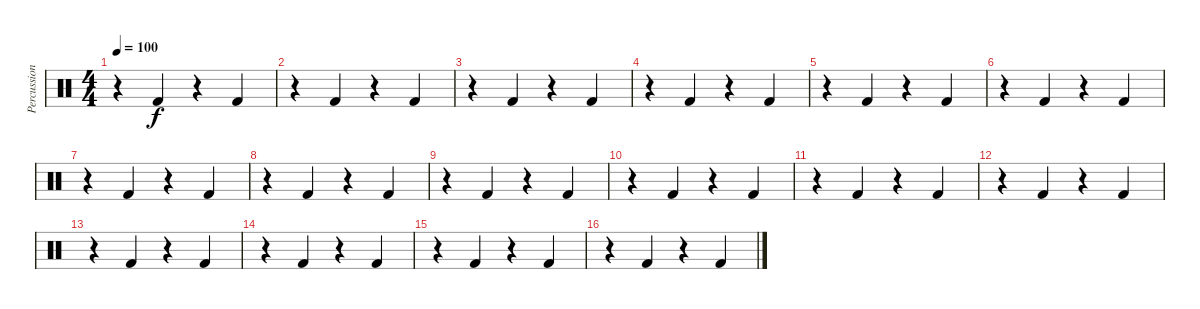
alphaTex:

\track ("Percussion" "Percussion") {instrument percussion}
\staff {score}
\articulation defaults
\ts (4 4)
\tempo 100
\clef neutral
\ks c
r.4{dy f} "Kick (hit) 2".4 r.4 "Kick (hit) 2".4 |
r.4 "Kick (hit) 2".4 r.4 "Kick (hit) 2".4 |
r.4 "Kick (hit) 2".4 r.4 "Kick (hit) 2".4 |
r.4 "Kick (hit) 2".4 r.4 "Kick (hit) 2".4 |
r.4 "Kick (hit) 2".4 r.4 "Kick (hit) 2".4 |
r.4 "Kick (hit) 2".4 r.4 "Kick (hit) 2".4 |
r.4 "Kick (hit) 2".4 r.4 "Kick (hit) 2".4 |
r.4 "Kick (hit) 2".4 r.4 "Kick (hit) 2".4 |
r.4 "Kick (hit) 2".4 r.4 "Kick (hit) 2".4 |
r.4 "Kick (hit) 2".4 r.4 "Kick (hit) 2".4 |
r.4 "Kick (hit) 2".4 r.4 "Kick (hit) 2".4 |
r.4 "Kick (hit) 2".4 r.4 "Kick (hit) 2".4 |
r.4 "Kick (hit) 2".4 r.4 "Kick (hit) 2".4 |
r.4 "Kick (hit) 2".4 r.4 "Kick (hit) 2".4 |
r.4 "Kick (hit) 2".4 r.4 "Kick (hit) 2".4 |
r.4 "Kick (hit) 2".4 r.4 "Kick (hit) 2".4
